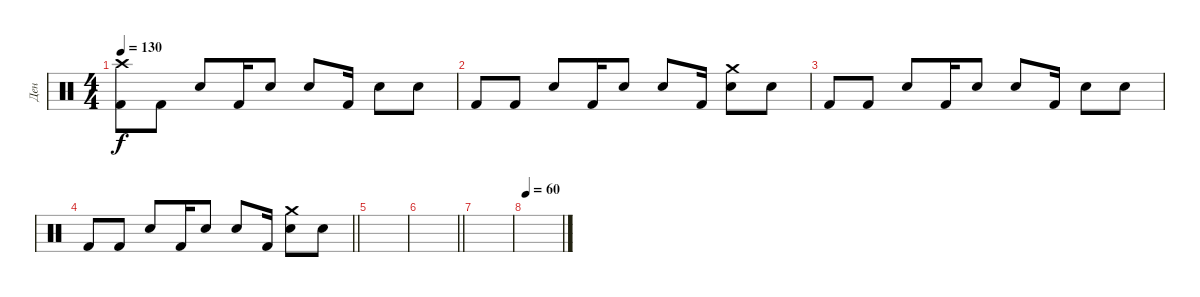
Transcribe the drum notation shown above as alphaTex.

\track ("Ден" "Ден") {instrument percussion}
\staff {score}
\articulation defaults
\ts (4 4)
\tempo 130
\clef neutral
\ks c
("Crash high (hit)" "Kick (hit) 2").8{dy f} "Kick (hit) 2".8 "Snare (hit) 2".8 "Kick (hit) 2".16 "Snare (hit) 2".8 "Snare (hit) 2".8 "Kick (hit) 2".16 "Snare (hit) 2".8 "Snare (hit)".8 |
"Kick (hit) 2".8 "Kick (hit) 2".8 "Snare (hit) 2".8 "Kick (hit) 2".16 "Snare (hit) 2".8 "Snare (hit) 2".8 "Kick (hit) 2".16 ("Crash medium (hit)" "Snare (hit) 2").8 "Snare (hit)".8 |
"Kick (hit) 2".8 "Kick (hit) 2".8 "Snare (hit) 2".8 "Kick (hit) 2".16 "Snare (hit) 2".8 "Snare (hit) 2".8 "Kick (hit) 2".16 "Snare (hit) 2".8 "Snare (hit)".8 |
\barLineRight lightlight "Kick (hit) 2".8 "Kick (hit) 2".8 "Snare (hit) 2".8 "Kick (hit) 2".16 "Snare (hit) 2".8 "Snare (hit) 2".8 "Kick (hit) 2".16
("Crash medium (hit)" "Snare (hit) 2").8 "Snare (hit)".8 |
|
\barLineRight lightlight
|
|
\tempo 60
